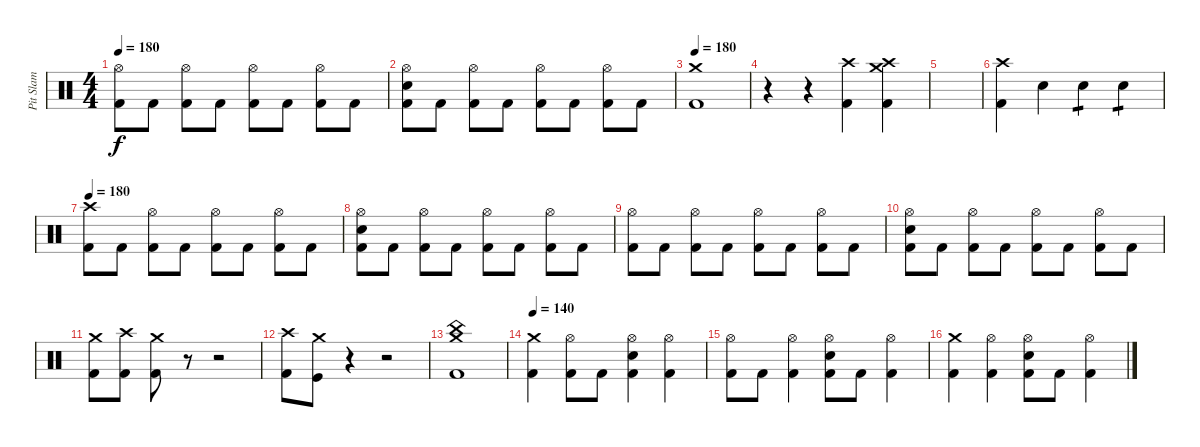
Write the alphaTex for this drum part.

\track ("Pit Slam" "Pit Slam") {instrument percussion}
\staff {score}
\articulation defaults
\ts (4 4)
\tempo 180
\clef neutral
\ks c
("Hi-Hat (open)" "Kick (hit) 2").8{dy f} "Kick (hit) 2".8 ("Hi-Hat (open)" "Kick (hit) 2").8 "Kick (hit) 2".8 ("Hi-Hat (open)" "Kick (hit) 2").8 "Kick (hit) 2".8 ("Hi-Hat (open)" "Kick (hit) 2").8 "Kick (hit) 2".8 |
("Hi-Hat (open)" "Electric Snare (hit)" "Kick (hit) 2").8 "Kick (hit) 2".8 ("Hi-Hat (open)" "Kick (hit) 2").8 "Kick (hit) 2".8 ("Hi-Hat (open)" "Kick (hit) 2").8 "Kick (hit) 2".8 ("Hi-Hat (open)" "Kick (hit) 2").8 "Kick (hit) 2".8 |
\tempo 180
("Crash medium (hit)" "Kick (hit) 2").1 |
r.4 r.4 ("Crash high (hit)" "Kick (hit) 2").4 ("Crash medium (hit)" "Crash high (hit)" "Kick (hit) 2").4 |
|
("Crash high (hit)" "Kick (hit) 2").4 "Electric Snare (hit)".4 "Electric Snare (hit)".4{tp 1} "Electric Snare (hit)".4{tp 1} |
\tempo 180
("Crash high (hit)" "Kick (hit) 2").8 "Kick (hit) 2".8 ("Hi-Hat (open)" "Kick (hit) 2").8 "Kick (hit) 2".8 ("Hi-Hat (open)" "Kick (hit) 2").8 "Kick (hit) 2".8 ("Hi-Hat (open)" "Kick (hit) 2").8 "Kick (hit) 2".8 |
("Hi-Hat (open)" "Electric Snare (hit)" "Kick (hit) 2").8 "Kick (hit) 2".8 ("Hi-Hat (open)" "Kick (hit) 2").8 "Kick (hit) 2".8 ("Hi-Hat (open)" "Kick (hit) 2").8 "Kick (hit) 2".8 ("Hi-Hat (open)" "Kick (hit) 2").8 "Kick (hit) 2".8 |
("Hi-Hat (open)" "Kick (hit) 2").8 "Kick (hit) 2".8 ("Hi-Hat (open)" "Kick (hit) 2").8 "Kick (hit) 2".8 ("Hi-Hat (open)" "Kick (hit) 2").8 "Kick (hit) 2".8 ("Hi-Hat (open)" "Kick (hit) 2").8 "Kick (hit) 2".8 |
("Hi-Hat (open)" "Electric Snare (hit)" "Kick (hit) 2").8 "Kick (hit) 2".8 ("Hi-Hat (open)" "Kick (hit) 2").8 "Kick (hit) 2".8 ("Hi-Hat (open)" "Kick (hit) 2").8 "Kick (hit) 2".8 ("Hi-Hat (open)" "Kick (hit) 2").8 "Kick (hit) 2".8 |
("Crash medium (hit)" "Kick (hit) 2").8 ("Crash high (hit)" "Kick (hit) 2").8 ("Crash medium (hit)" "Kick (hit) 2").8 r.8 r.2 |
("Crash high (hit)" "Kick (hit) 2").8 ("Crash medium (hit)" "Kick (hit)").8 r.4 r.2 |
("China (hit)" "Crash medium (hit)" "Kick (hit) 2").1 |
\tempo 140
("Crash medium (hit)" "Kick (hit) 2").4 ("Hi-Hat (open)" "Kick (hit) 2").8 "Kick (hit) 2".8 ("Hi-Hat (open)" "Electric Snare (hit)" "Kick (hit) 2").4 ("Hi-Hat (open)" "Kick (hit) 2").4 |
("Hi-Hat (open)" "Kick (hit) 2").8 "Kick (hit) 2".8 ("Hi-Hat (open)" "Kick (hit) 2").4 ("Hi-Hat (open)" "Electric Snare (hit)" "Kick (hit) 2").8 "Kick (hit) 2".8 ("Hi-Hat (open)" "Kick (hit) 2").4 |
("Crash medium (hit)" "Kick (hit) 2").4 ("Hi-Hat (open)" "Kick (hit) 2").4 ("Hi-Hat (open)" "Electric Snare (hit)" "Kick (hit) 2").8 "Kick (hit) 2".8 ("Hi-Hat (open)" "Kick (hit) 2").4
